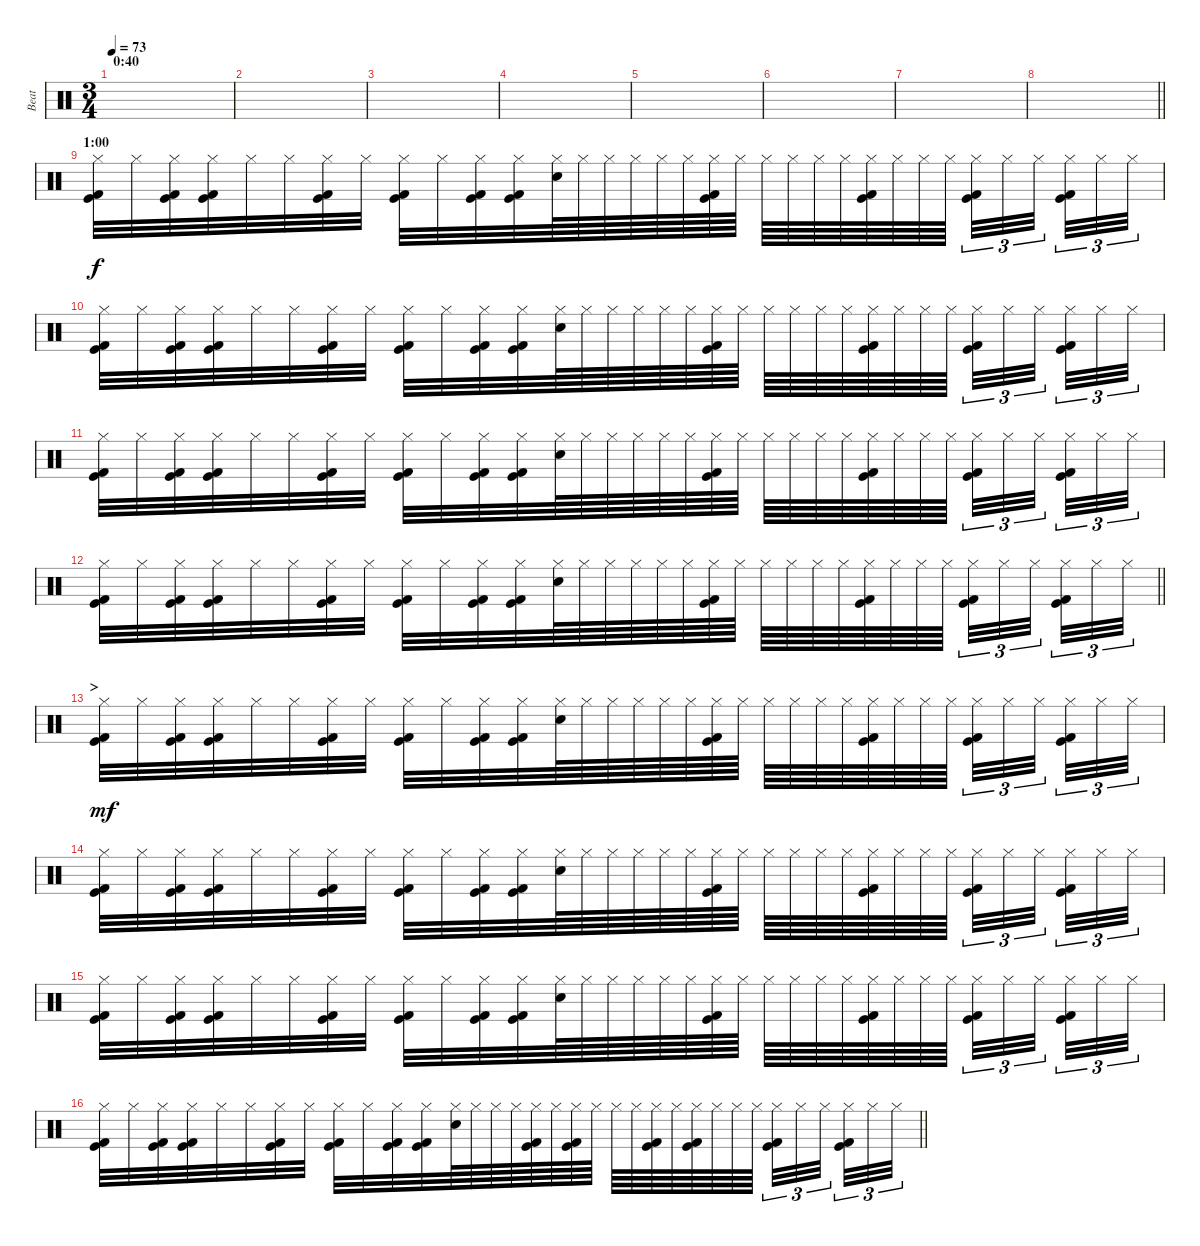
\track ("Beat" "Beat") {instrument percussion}
\staff {score}
\articulation defaults
\ts (3 4)
\section ("" "0:40")
\tempo 73
\clef neutral
\ks c
|
|
|
|
|
|
|
\barLineRight lightlight
|
\section ("" "1:00")
("Hi-Hat (closed)" "Kick (hit)" "Kick (hit) 2").32 "Hi-Hat (closed)".32 ("Hi-Hat (closed)" "Kick (hit)" "Kick (hit) 2").32 ("Hi-Hat (closed)" "Kick (hit)" "Kick (hit) 2").32 "Hi-Hat (closed)".32 "Hi-Hat (closed)".32 ("Hi-Hat (closed)" "Kick (hit)" "Kick (hit) 2").32 "Hi-Hat (closed)".32 ("Hi-Hat (closed)" "Kick (hit)" "Kick (hit) 2").32 "Hi-Hat (closed)".32 ("Hi-Hat (closed)" "Kick (hit)" "Kick (hit) 2").32 ("Hi-Hat (closed)" "Kick (hit)" "Kick (hit) 2").32 ("Hi-Hat (closed)" "Snare (hit) 2").64 "Hi-Hat (closed)".64 "Hi-Hat (closed)".64 "Hi-Hat (closed)".64 "Hi-Hat (closed)".64 "Hi-Hat (closed)".64 ("Hi-Hat (closed)" "Kick (hit)" "Kick (hit) 2").64 "Hi-Hat (closed)".64 "Hi-Hat (closed)".64 "Hi-Hat (closed)".64 "Hi-Hat (closed)".64 "Hi-Hat (closed)".64 ("Hi-Hat (closed)" "Kick (hit)" "Kick (hit) 2").64 "Hi-Hat (closed)".64 "Hi-Hat (closed)".64 "Hi-Hat (closed)".64{beam splitsecondary} ("Hi-Hat (closed)" "Kick (hit)" "Kick (hit) 2").32{tu (3 2)} "Hi-Hat (closed)".32{tu (3 2)} "Hi-Hat (closed)".32{tu (3 2) beam splitsecondary} ("Hi-Hat (closed)" "Kick (hit)" "Kick (hit) 2").32{tu (3 2)} "Hi-Hat (closed)".32{tu (3 2)} "Hi-Hat (closed)".32{tu (3 2)} |
("Hi-Hat (closed)" "Kick (hit)" "Kick (hit) 2").32 "Hi-Hat (closed)".32 ("Hi-Hat (closed)" "Kick (hit)" "Kick (hit) 2").32 ("Hi-Hat (closed)" "Kick (hit)" "Kick (hit) 2").32 "Hi-Hat (closed)".32 "Hi-Hat (closed)".32 ("Hi-Hat (closed)" "Kick (hit)" "Kick (hit) 2").32 "Hi-Hat (closed)".32 ("Hi-Hat (closed)" "Kick (hit)" "Kick (hit) 2").32 "Hi-Hat (closed)".32 ("Hi-Hat (closed)" "Kick (hit)" "Kick (hit) 2").32 ("Hi-Hat (closed)" "Kick (hit)" "Kick (hit) 2").32 ("Hi-Hat (closed)" "Snare (hit) 2").64 "Hi-Hat (closed)".64 "Hi-Hat (closed)".64 "Hi-Hat (closed)".64 "Hi-Hat (closed)".64 "Hi-Hat (closed)".64 ("Hi-Hat (closed)" "Kick (hit)" "Kick (hit) 2").64 "Hi-Hat (closed)".64 "Hi-Hat (closed)".64 "Hi-Hat (closed)".64 "Hi-Hat (closed)".64 "Hi-Hat (closed)".64 ("Hi-Hat (closed)" "Kick (hit)" "Kick (hit) 2").64 "Hi-Hat (closed)".64 "Hi-Hat (closed)".64 "Hi-Hat (closed)".64{beam splitsecondary} ("Hi-Hat (closed)" "Kick (hit)" "Kick (hit) 2").32{tu (3 2)} "Hi-Hat (closed)".32{tu (3 2)} "Hi-Hat (closed)".32{tu (3 2) beam splitsecondary} ("Hi-Hat (closed)" "Kick (hit)" "Kick (hit) 2").32{tu (3 2)} "Hi-Hat (closed)".32{tu (3 2)} "Hi-Hat (closed)".32{tu (3 2)} |
("Hi-Hat (closed)" "Kick (hit)" "Kick (hit) 2").32 "Hi-Hat (closed)".32 ("Hi-Hat (closed)" "Kick (hit)" "Kick (hit) 2").32 ("Hi-Hat (closed)" "Kick (hit)" "Kick (hit) 2").32 "Hi-Hat (closed)".32 "Hi-Hat (closed)".32 ("Hi-Hat (closed)" "Kick (hit)" "Kick (hit) 2").32 "Hi-Hat (closed)".32 ("Hi-Hat (closed)" "Kick (hit)" "Kick (hit) 2").32 "Hi-Hat (closed)".32 ("Hi-Hat (closed)" "Kick (hit)" "Kick (hit) 2").32 ("Hi-Hat (closed)" "Kick (hit)" "Kick (hit) 2").32 ("Hi-Hat (closed)" "Snare (hit) 2").64 "Hi-Hat (closed)".64 "Hi-Hat (closed)".64 "Hi-Hat (closed)".64 "Hi-Hat (closed)".64 "Hi-Hat (closed)".64 ("Hi-Hat (closed)" "Kick (hit)" "Kick (hit) 2").64 "Hi-Hat (closed)".64 "Hi-Hat (closed)".64 "Hi-Hat (closed)".64 "Hi-Hat (closed)".64 "Hi-Hat (closed)".64 ("Hi-Hat (closed)" "Kick (hit)" "Kick (hit) 2").64 "Hi-Hat (closed)".64 "Hi-Hat (closed)".64 "Hi-Hat (closed)".64{beam splitsecondary} ("Hi-Hat (closed)" "Kick (hit)" "Kick (hit) 2").32{tu (3 2)} "Hi-Hat (closed)".32{tu (3 2)} "Hi-Hat (closed)".32{tu (3 2) beam splitsecondary} ("Hi-Hat (closed)" "Kick (hit)" "Kick (hit) 2").32{tu (3 2)} "Hi-Hat (closed)".32{tu (3 2)} "Hi-Hat (closed)".32{tu (3 2)} |
\barLineRight lightlight
("Hi-Hat (closed)" "Kick (hit)" "Kick (hit) 2").32{dy f} "Hi-Hat (closed)".32 ("Hi-Hat (closed)" "Kick (hit)" "Kick (hit) 2").32 ("Hi-Hat (closed)" "Kick (hit)" "Kick (hit) 2").32 "Hi-Hat (closed)".32 "Hi-Hat (closed)".32 ("Hi-Hat (closed)" "Kick (hit)" "Kick (hit) 2").32 "Hi-Hat (closed)".32 ("Hi-Hat (closed)" "Kick (hit)" "Kick (hit) 2").32 "Hi-Hat (closed)".32 ("Hi-Hat (closed)" "Kick (hit)" "Kick (hit) 2").32 ("Hi-Hat (closed)" "Kick (hit)" "Kick (hit) 2").32 ("Hi-Hat (closed)" "Snare (hit) 2").64 "Hi-Hat (closed)".64 "Hi-Hat (closed)".64 "Hi-Hat (closed)".64 "Hi-Hat (closed)".64 "Hi-Hat (closed)".64 ("Hi-Hat (closed)" "Kick (hit)" "Kick (hit) 2").64 "Hi-Hat (closed)".64 "Hi-Hat (closed)".64 "Hi-Hat (closed)".64 "Hi-Hat (closed)".64 "Hi-Hat (closed)".64 ("Hi-Hat (closed)" "Kick (hit)" "Kick (hit) 2").64 "Hi-Hat (closed)".64 "Hi-Hat (closed)".64 "Hi-Hat (closed)".64{beam splitsecondary} ("Hi-Hat (closed)" "Kick (hit)" "Kick (hit) 2").32{tu (3 2)} "Hi-Hat (closed)".32{tu (3 2)} "Hi-Hat (closed)".32{tu (3 2) beam splitsecondary} ("Hi-Hat (closed)" "Kick (hit)" "Kick (hit) 2").32{tu (3 2)} "Hi-Hat (closed)".32{tu (3 2)} "Hi-Hat (closed)".32{tu (3 2)} |
\section ("" ">")
("Hi-Hat (closed)" "Kick (hit)" "Kick (hit) 2").32{dy mf} "Hi-Hat (closed)".32 ("Hi-Hat (closed)" "Kick (hit)" "Kick (hit) 2").32 ("Hi-Hat (closed)" "Kick (hit)" "Kick (hit) 2").32 "Hi-Hat (closed)".32 "Hi-Hat (closed)".32 ("Hi-Hat (closed)" "Kick (hit)" "Kick (hit) 2").32 "Hi-Hat (closed)".32 ("Hi-Hat (closed)" "Kick (hit)" "Kick (hit) 2").32 "Hi-Hat (closed)".32 ("Hi-Hat (closed)" "Kick (hit)" "Kick (hit) 2").32 ("Hi-Hat (closed)" "Kick (hit)" "Kick (hit) 2").32 ("Hi-Hat (closed)" "Snare (hit) 2").64 "Hi-Hat (closed)".64 "Hi-Hat (closed)".64 "Hi-Hat (closed)".64 "Hi-Hat (closed)".64 "Hi-Hat (closed)".64 ("Hi-Hat (closed)" "Kick (hit)" "Kick (hit) 2").64 "Hi-Hat (closed)".64 "Hi-Hat (closed)".64 "Hi-Hat (closed)".64 "Hi-Hat (closed)".64 "Hi-Hat (closed)".64 ("Hi-Hat (closed)" "Kick (hit)" "Kick (hit) 2").64 "Hi-Hat (closed)".64 "Hi-Hat (closed)".64 "Hi-Hat (closed)".64{beam splitsecondary} ("Hi-Hat (closed)" "Kick (hit)" "Kick (hit) 2").32{tu (3 2)} "Hi-Hat (closed)".32{tu (3 2)} "Hi-Hat (closed)".32{tu (3 2) beam splitsecondary} ("Hi-Hat (closed)" "Kick (hit)" "Kick (hit) 2").32{tu (3 2)} "Hi-Hat (closed)".32{tu (3 2)} "Hi-Hat (closed)".32{tu (3 2)} |
("Hi-Hat (closed)" "Kick (hit)" "Kick (hit) 2").32 "Hi-Hat (closed)".32 ("Hi-Hat (closed)" "Kick (hit)" "Kick (hit) 2").32 ("Hi-Hat (closed)" "Kick (hit)" "Kick (hit) 2").32 "Hi-Hat (closed)".32 "Hi-Hat (closed)".32 ("Hi-Hat (closed)" "Kick (hit)" "Kick (hit) 2").32 "Hi-Hat (closed)".32 ("Hi-Hat (closed)" "Kick (hit)" "Kick (hit) 2").32 "Hi-Hat (closed)".32 ("Hi-Hat (closed)" "Kick (hit)" "Kick (hit) 2").32 ("Hi-Hat (closed)" "Kick (hit)" "Kick (hit) 2").32 ("Hi-Hat (closed)" "Snare (hit) 2").64 "Hi-Hat (closed)".64 "Hi-Hat (closed)".64 "Hi-Hat (closed)".64 "Hi-Hat (closed)".64 "Hi-Hat (closed)".64 ("Hi-Hat (closed)" "Kick (hit)" "Kick (hit) 2").64 "Hi-Hat (closed)".64 "Hi-Hat (closed)".64 "Hi-Hat (closed)".64 "Hi-Hat (closed)".64 "Hi-Hat (closed)".64 ("Hi-Hat (closed)" "Kick (hit)" "Kick (hit) 2").64 "Hi-Hat (closed)".64 "Hi-Hat (closed)".64 "Hi-Hat (closed)".64{beam splitsecondary} ("Hi-Hat (closed)" "Kick (hit)" "Kick (hit) 2").32{tu (3 2)} "Hi-Hat (closed)".32{tu (3 2)} "Hi-Hat (closed)".32{tu (3 2) beam splitsecondary} ("Hi-Hat (closed)" "Kick (hit)" "Kick (hit) 2").32{tu (3 2)} "Hi-Hat (closed)".32{tu (3 2)} "Hi-Hat (closed)".32{tu (3 2)} |
("Hi-Hat (closed)" "Kick (hit)" "Kick (hit) 2").32 "Hi-Hat (closed)".32 ("Hi-Hat (closed)" "Kick (hit)" "Kick (hit) 2").32 ("Hi-Hat (closed)" "Kick (hit)" "Kick (hit) 2").32 "Hi-Hat (closed)".32 "Hi-Hat (closed)".32 ("Hi-Hat (closed)" "Kick (hit)" "Kick (hit) 2").32 "Hi-Hat (closed)".32 ("Hi-Hat (closed)" "Kick (hit)" "Kick (hit) 2").32 "Hi-Hat (closed)".32 ("Hi-Hat (closed)" "Kick (hit)" "Kick (hit) 2").32 ("Hi-Hat (closed)" "Kick (hit)" "Kick (hit) 2").32 ("Hi-Hat (closed)" "Snare (hit) 2").64 "Hi-Hat (closed)".64 "Hi-Hat (closed)".64 "Hi-Hat (closed)".64 "Hi-Hat (closed)".64 "Hi-Hat (closed)".64 ("Hi-Hat (closed)" "Kick (hit)" "Kick (hit) 2").64 "Hi-Hat (closed)".64 "Hi-Hat (closed)".64 "Hi-Hat (closed)".64 "Hi-Hat (closed)".64 "Hi-Hat (closed)".64 ("Hi-Hat (closed)" "Kick (hit)" "Kick (hit) 2").64 "Hi-Hat (closed)".64 "Hi-Hat (closed)".64 "Hi-Hat (closed)".64{beam splitsecondary} ("Hi-Hat (closed)" "Kick (hit)" "Kick (hit) 2").32{tu (3 2)} "Hi-Hat (closed)".32{tu (3 2)} "Hi-Hat (closed)".32{tu (3 2) beam splitsecondary} ("Hi-Hat (closed)" "Kick (hit)" "Kick (hit) 2").32{tu (3 2)} "Hi-Hat (closed)".32{tu (3 2)} "Hi-Hat (closed)".32{tu (3 2)} |
\barLineRight lightlight
("Hi-Hat (closed)" "Kick (hit)" "Kick (hit) 2").32 "Hi-Hat (closed)".32 ("Hi-Hat (closed)" "Kick (hit)" "Kick (hit) 2").32 ("Hi-Hat (closed)" "Kick (hit)" "Kick (hit) 2").32 "Hi-Hat (closed)".32 "Hi-Hat (closed)".32 ("Hi-Hat (closed)" "Kick (hit)" "Kick (hit) 2").32 "Hi-Hat (closed)".32 ("Hi-Hat (closed)" "Kick (hit)" "Kick (hit) 2").32 "Hi-Hat (closed)".32 ("Hi-Hat (closed)" "Kick (hit)" "Kick (hit) 2").32 ("Hi-Hat (closed)" "Kick (hit)" "Kick (hit) 2").32 ("Hi-Hat (closed)" "Snare (hit) 2").64 "Hi-Hat (closed)".64 "Hi-Hat (closed)".64 "Hi-Hat (closed)".64 ("Hi-Hat (closed)" "Kick (hit)" "Kick (hit) 2").64 "Hi-Hat (closed)".64 ("Hi-Hat (closed)" "Kick (hit)" "Kick (hit) 2").64 "Hi-Hat (closed)".64 "Hi-Hat (closed)".64 "Hi-Hat (closed)".64 ("Hi-Hat (closed)" "Kick (hit)" "Kick (hit) 2").64 "Hi-Hat (closed)".64 ("Hi-Hat (closed)" "Kick (hit)" "Kick (hit) 2").64 "Hi-Hat (closed)".64 "Hi-Hat (closed)".64 "Hi-Hat (closed)".64{beam splitsecondary} ("Hi-Hat (closed)" "Kick (hit)" "Kick (hit) 2").32{tu (3 2)} "Hi-Hat (closed)".32{tu (3 2)} "Hi-Hat (closed)".32{tu (3 2) beam splitsecondary} ("Hi-Hat (closed)" "Kick (hit)" "Kick (hit) 2").32{tu (3 2)} "Hi-Hat (closed)".32{tu (3 2)} "Hi-Hat (closed)".32{tu (3 2)}
